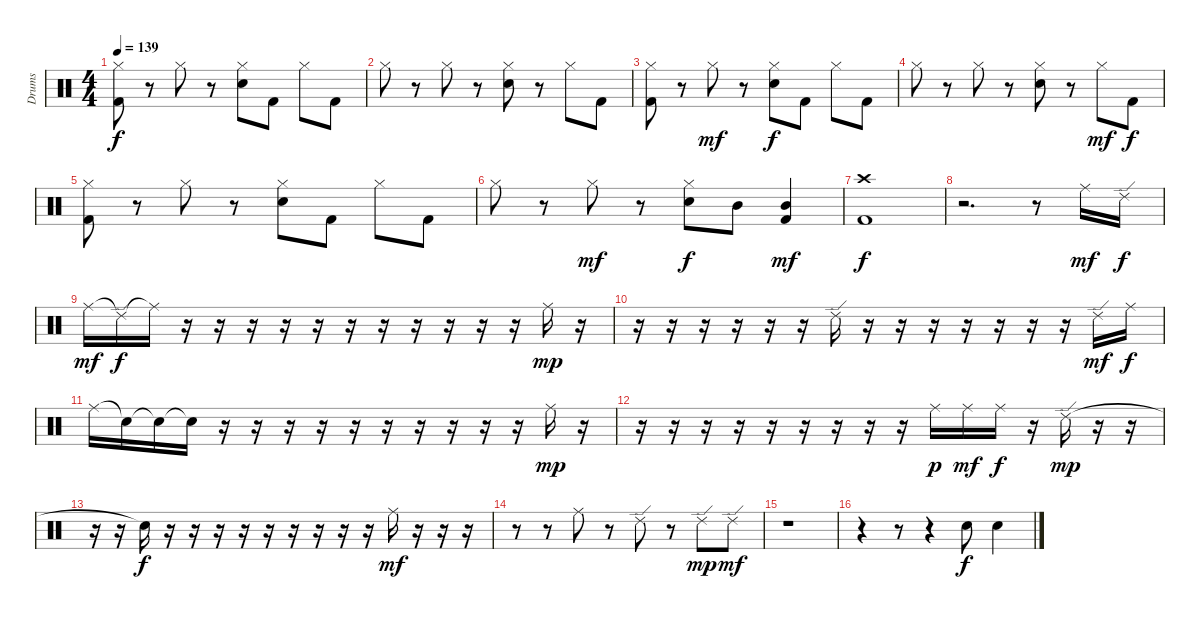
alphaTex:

\track ("Drums" "Drums") {instrument percussion}
\staff {score}
\articulation defaults
\ts (4 4)
\tempo 139
\clef neutral
\ks c
("Hi-Hat (closed)" "Kick (hit) 2").8{dy f} r.8 "Hi-Hat (closed)".8 r.8 ("Hi-Hat (closed)" "Snare (hit) 2").8 "Kick (hit) 2".8 "Hi-Hat (closed)".8 "Kick (hit) 2".8 |
"Hi-Hat (closed)".8 r.8 "Hi-Hat (closed)".8 r.8 ("Hi-Hat (closed)" "Snare (hit) 2").8 r.8 "Hi-Hat (closed)".8 "Kick (hit) 2".8 |
("Hi-Hat (closed)" "Kick (hit) 2").8 r.8 "Hi-Hat (closed)".8{dy mf} r.8 ("Hi-Hat (closed)" "Snare (hit) 2").8{dy f} "Kick (hit) 2".8 "Hi-Hat (closed)".8 "Kick (hit) 2".8 |
"Hi-Hat (closed)".8 r.8 "Hi-Hat (closed)".8 r.8 ("Hi-Hat (closed)" "Snare (hit) 2").8 r.8 "Hi-Hat (closed)".8{dy mf} "Kick (hit) 2".8{dy f} |
("Hi-Hat (closed)" "Kick (hit) 2").8 r.8 "Hi-Hat (closed)".8 r.8 ("Hi-Hat (closed)" "Snare (hit) 2").8 "Kick (hit) 2".8 "Hi-Hat (closed)".8 "Kick (hit) 2".8 |
"Hi-Hat (closed)".8 r.8 "Hi-Hat (closed)".8{dy mf} r.8 ("Hi-Hat (closed)" "Snare (hit) 2").8{dy f} "Mid Tom (hit)".8 ("Mid Tom (hit)" "Kick (hit) 2").4{dy mf} |
("Crash high (hit)" "Kick (hit) 2").1{dy f} |
r.2{d} r.8 "Ride (middle)".16{dy mf} "Ride (edge) 2".16{dy f} |
"Ride (middle)".16{dy mf} "Ride (edge) 2"{t}.16{dy f} "Ride (middle)"{t}.16 r.16 r.16 r.16 r.16 r.16 r.16 r.16 r.16 r.16 r.16 r.16 "Ride (middle)".16{dy mp} r.16 |
r.16 r.16 r.16 r.16 r.16 r.16 "Ride (edge) 2".16 r.16 r.16 r.16 r.16 r.16 r.16 r.16 "Ride (edge) 2".16{dy mf} "Ride (middle)".16{dy f} |
"Ride (middle)".16 "Snare (hit)"{t}.16 "Snare (hit)"{t}.16 "Snare (hit)"{t}.16 r.16 r.16 r.16 r.16 r.16 r.16 r.16 r.16 r.16 r.16 "Ride (middle)".16{dy mp} r.16 |
r.16 r.16 r.16 r.16 r.16 r.16 r.16 r.16 r.16 "Ride (middle)".16{dy p} "Ride (middle)".16{dy mf} "Ride (middle)".16{dy f} r.16 "Ride (edge) 2".16{dy mp} r.16 r.16 |
r.16 r.16 "Snare (hit)"{t}.16{dy f} r.16 r.16 r.16 r.16 r.16 r.16 r.16 r.16 r.16 "Ride (middle)".16{dy mf} r.16 r.16 r.16 |
r.8 r.8 "Ride (middle)".8 r.8 "Ride (edge) 2".8 r.8 "Ride (edge) 2".8{dy mp} "Ride (edge) 2".8{dy mf} |
r.1 |
r.4 r.8 r.4 "Snare (hit) 2".8{dy f} "Snare (hit) 2".4
